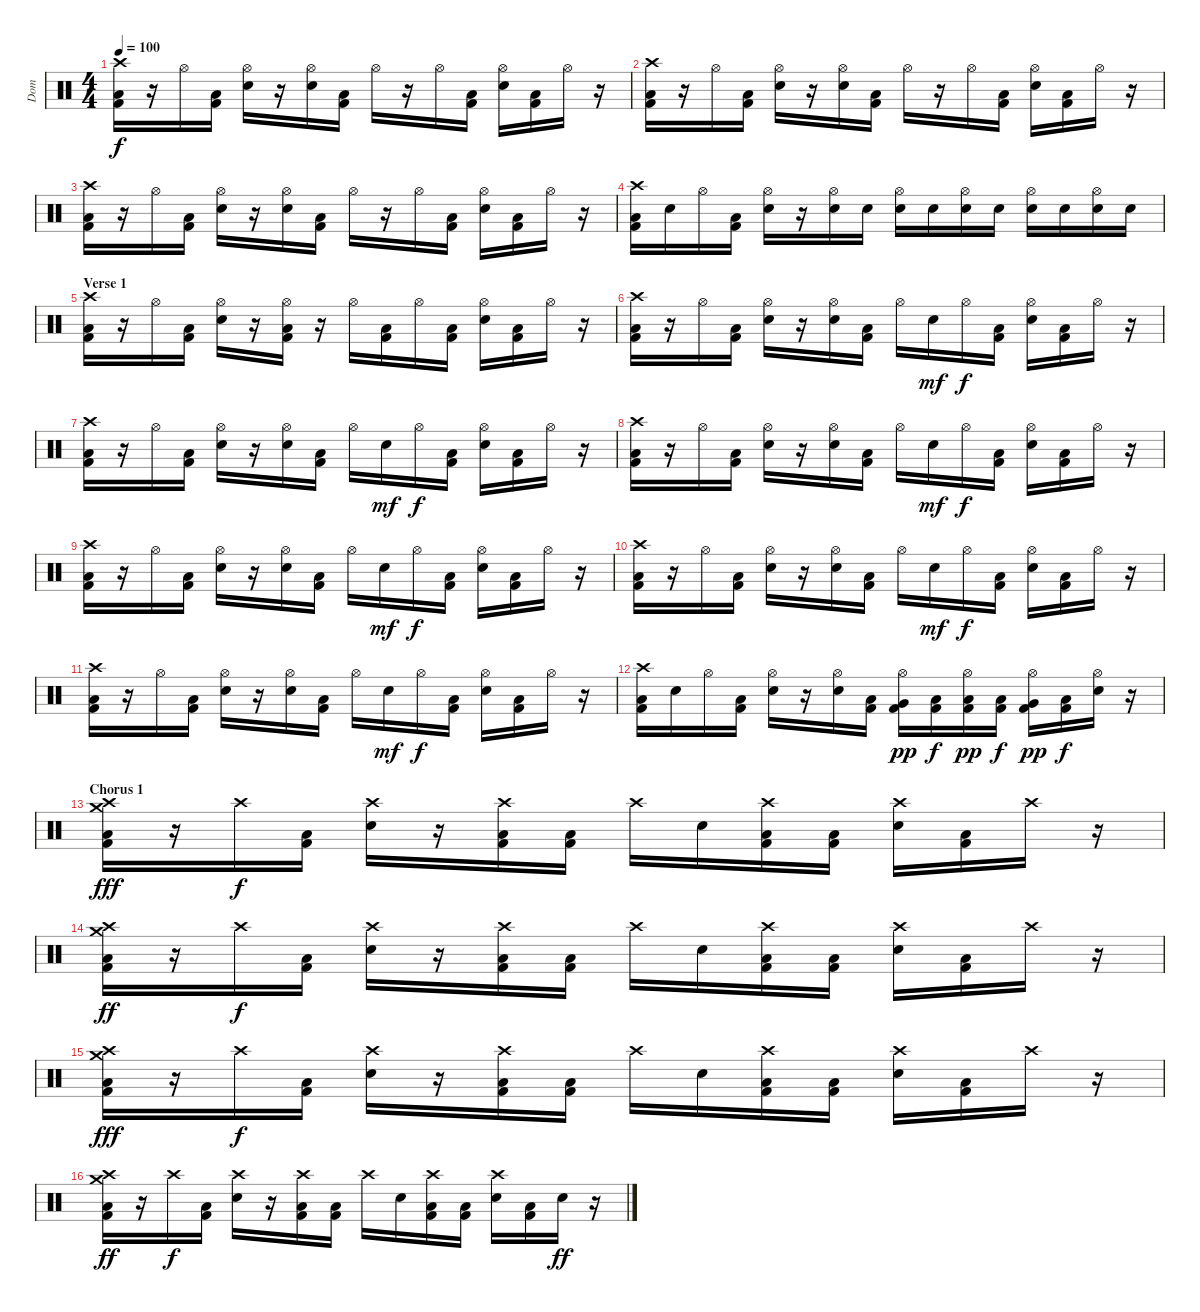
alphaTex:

\track ("Dom" "Dom") {instrument percussion}
\staff {score}
\articulation defaults
\ts (4 4)
\tempo 100
\clef neutral
\ks c
("Crash high (hit)" "Low Floor Tom (hit)" "Kick (hit) 2").16{dy f} r.16 "Hi-Hat (open)".16 ("Low Floor Tom (hit)" "Kick (hit) 2").16 ("Hi-Hat (open)" "Electric Snare (hit)").16 r.16 ("Hi-Hat (open)" "Electric Snare (hit)").16 ("Low Floor Tom (hit)" "Kick (hit) 2").16 "Hi-Hat (open)".16 r.16 "Hi-Hat (open)".16 ("Low Floor Tom (hit)" "Kick (hit) 2").16 ("Hi-Hat (open)" "Electric Snare (hit)").16 ("Low Floor Tom (hit)" "Kick (hit) 2").16 "Hi-Hat (open)".16 r.16 |
("Crash high (hit)" "Low Floor Tom (hit)" "Kick (hit) 2").16 r.16 "Hi-Hat (open)".16 ("Low Floor Tom (hit)" "Kick (hit) 2").16 ("Hi-Hat (open)" "Electric Snare (hit)").16 r.16 ("Hi-Hat (open)" "Electric Snare (hit)").16 ("Low Floor Tom (hit)" "Kick (hit) 2").16 "Hi-Hat (open)".16 r.16 "Hi-Hat (open)".16 ("Low Floor Tom (hit)" "Kick (hit) 2").16 ("Hi-Hat (open)" "Electric Snare (hit)").16 ("Low Floor Tom (hit)" "Kick (hit) 2").16 "Hi-Hat (open)".16 r.16 |
("Crash high (hit)" "Low Floor Tom (hit)" "Kick (hit) 2").16 r.16 "Hi-Hat (open)".16 ("Low Floor Tom (hit)" "Kick (hit) 2").16 ("Hi-Hat (open)" "Electric Snare (hit)").16 r.16 ("Hi-Hat (open)" "Electric Snare (hit)").16 ("Low Floor Tom (hit)" "Kick (hit) 2").16 "Hi-Hat (open)".16 r.16 "Hi-Hat (open)".16 ("Low Floor Tom (hit)" "Kick (hit) 2").16 ("Hi-Hat (open)" "Electric Snare (hit)").16 ("Low Floor Tom (hit)" "Kick (hit) 2").16 "Hi-Hat (open)".16 r.16 |
("Crash high (hit)" "Low Floor Tom (hit)" "Kick (hit) 2").16 "Electric Snare (hit)".16 "Hi-Hat (open)".16 ("Low Floor Tom (hit)" "Kick (hit) 2").16 ("Hi-Hat (open)" "Electric Snare (hit)").16 r.16 ("Hi-Hat (open)" "Electric Snare (hit)").16 "Electric Snare (hit)".16 ("Hi-Hat (open)" "Electric Snare (hit)").16 "Electric Snare (hit)".16 ("Hi-Hat (open)" "Electric Snare (hit)").16 "Electric Snare (hit)".16 ("Hi-Hat (open)" "Electric Snare (hit)").16 "Electric Snare (hit)".16 ("Hi-Hat (open)" "Electric Snare (hit)").16 "Electric Snare (hit)".16 |
\section ("" "Verse 1")
("Crash high (hit)" "Low Floor Tom (hit)" "Kick (hit) 2").16 r.16 "Hi-Hat (open)".16 ("Low Floor Tom (hit)" "Kick (hit) 2").16 ("Hi-Hat (open)" "Electric Snare (hit)").16 r.16 ("Hi-Hat (open)" "Low Floor Tom (hit)" "Kick (hit) 2").16 r.16 "Hi-Hat (open)".16 ("Low Floor Tom (hit)" "Kick (hit) 2").16 "Hi-Hat (open)".16 ("Low Floor Tom (hit)" "Kick (hit) 2").16 ("Hi-Hat (open)" "Electric Snare (hit)").16 ("Low Floor Tom (hit)" "Kick (hit) 2").16 "Hi-Hat (open)".16 r.16 |
("Crash high (hit)" "Low Floor Tom (hit)" "Kick (hit) 2").16 r.16 "Hi-Hat (open)".16 ("Low Floor Tom (hit)" "Kick (hit) 2").16 ("Hi-Hat (open)" "Electric Snare (hit)").16 r.16 ("Hi-Hat (open)" "Electric Snare (hit)").16 ("Low Floor Tom (hit)" "Kick (hit) 2").16 "Hi-Hat (open)".16 "Electric Snare (hit)".16{dy mf} "Hi-Hat (open)".16{dy f} ("Low Floor Tom (hit)" "Kick (hit) 2").16 ("Hi-Hat (open)" "Electric Snare (hit)").16 ("Low Floor Tom (hit)" "Kick (hit) 2").16 "Hi-Hat (open)".16 r.16 |
("Crash high (hit)" "Low Floor Tom (hit)" "Kick (hit) 2").16 r.16 "Hi-Hat (open)".16 ("Low Floor Tom (hit)" "Kick (hit) 2").16 ("Hi-Hat (open)" "Electric Snare (hit)").16 r.16 ("Hi-Hat (open)" "Electric Snare (hit)").16 ("Low Floor Tom (hit)" "Kick (hit) 2").16 "Hi-Hat (open)".16 "Electric Snare (hit)".16{dy mf} "Hi-Hat (open)".16{dy f} ("Low Floor Tom (hit)" "Kick (hit) 2").16 ("Hi-Hat (open)" "Electric Snare (hit)").16 ("Low Floor Tom (hit)" "Kick (hit) 2").16 "Hi-Hat (open)".16 r.16 |
("Crash high (hit)" "Low Floor Tom (hit)" "Kick (hit) 2").16 r.16 "Hi-Hat (open)".16 ("Low Floor Tom (hit)" "Kick (hit) 2").16 ("Hi-Hat (open)" "Electric Snare (hit)").16 r.16 ("Hi-Hat (open)" "Electric Snare (hit)").16 ("Low Floor Tom (hit)" "Kick (hit) 2").16 "Hi-Hat (open)".16 "Electric Snare (hit)".16{dy mf} "Hi-Hat (open)".16{dy f} ("Low Floor Tom (hit)" "Kick (hit) 2").16 ("Hi-Hat (open)" "Electric Snare (hit)").16 ("Low Floor Tom (hit)" "Kick (hit) 2").16 "Hi-Hat (open)".16 r.16 |
("Crash high (hit)" "Low Floor Tom (hit)" "Kick (hit) 2").16 r.16 "Hi-Hat (open)".16 ("Low Floor Tom (hit)" "Kick (hit) 2").16 ("Hi-Hat (open)" "Electric Snare (hit)").16 r.16 ("Hi-Hat (open)" "Electric Snare (hit)").16 ("Low Floor Tom (hit)" "Kick (hit) 2").16 "Hi-Hat (open)".16 "Electric Snare (hit)".16{dy mf} "Hi-Hat (open)".16{dy f} ("Low Floor Tom (hit)" "Kick (hit) 2").16 ("Hi-Hat (open)" "Electric Snare (hit)").16 ("Low Floor Tom (hit)" "Kick (hit) 2").16 "Hi-Hat (open)".16 r.16 |
("Crash high (hit)" "Low Floor Tom (hit)" "Kick (hit) 2").16 r.16 "Hi-Hat (open)".16 ("Low Floor Tom (hit)" "Kick (hit) 2").16 ("Hi-Hat (open)" "Electric Snare (hit)").16 r.16 ("Hi-Hat (open)" "Electric Snare (hit)").16 ("Low Floor Tom (hit)" "Kick (hit) 2").16 "Hi-Hat (open)".16 "Electric Snare (hit)".16{dy mf} "Hi-Hat (open)".16{dy f} ("Low Floor Tom (hit)" "Kick (hit) 2").16 ("Hi-Hat (open)" "Electric Snare (hit)").16 ("Low Floor Tom (hit)" "Kick (hit) 2").16 "Hi-Hat (open)".16 r.16 |
("Crash high (hit)" "Low Floor Tom (hit)" "Kick (hit) 2").16 r.16 "Hi-Hat (open)".16 ("Low Floor Tom (hit)" "Kick (hit) 2").16 ("Hi-Hat (open)" "Electric Snare (hit)").16 r.16 ("Hi-Hat (open)" "Electric Snare (hit)").16 ("Low Floor Tom (hit)" "Kick (hit) 2").16 "Hi-Hat (open)".16 "Electric Snare (hit)".16{dy mf} "Hi-Hat (open)".16{dy f} ("Low Floor Tom (hit)" "Kick (hit) 2").16 ("Hi-Hat (open)" "Electric Snare (hit)").16 ("Low Floor Tom (hit)" "Kick (hit) 2").16 "Hi-Hat (open)".16 r.16 |
("Crash high (hit)" "Low Floor Tom (hit)" "Kick (hit) 2").16 "Electric Snare (hit)".16 "Hi-Hat (open)".16 ("Low Floor Tom (hit)" "Kick (hit) 2").16 ("Hi-Hat (open)" "Electric Snare (hit)").16 r.16 ("Hi-Hat (open)" "Electric Snare (hit)").16 ("Low Floor Tom (hit)" "Kick (hit) 2").16 ("Hi-Hat (open)" "Very Low Tom (hit)" "Kick (hit) 2").16{dy pp} ("Low Floor Tom (hit)" "Kick (hit) 2").16{dy f} ("Hi-Hat (open)" "Low Floor Tom (hit)" "Kick (hit) 2").16{dy pp} ("Low Floor Tom (hit)" "Kick (hit) 2").16{dy f} ("Hi-Hat (open)" "Very Low Tom (hit)" "Kick (hit) 2").16{dy pp} ("Low Floor Tom (hit)" "Kick (hit) 2").16{dy f} ("Hi-Hat (open)" "Electric Snare (hit)").16 r.16 |
\section ("" "Chorus 1")
("Crash high (hit)" "Crash medium (hit)" "Low Floor Tom (hit)" "Kick (hit) 2").16{dy fff} r.16 "Crash high (hit)".16{dy f} ("Low Floor Tom (hit)" "Kick (hit) 2").16 ("Crash high (hit)" "Electric Snare (hit)").16 r.16 ("Crash high (hit)" "Low Floor Tom (hit)" "Kick (hit) 2").16 ("Low Floor Tom (hit)" "Kick (hit) 2").16 "Crash high (hit)".16 "Electric Snare (hit)".16 ("Crash high (hit)" "Low Floor Tom (hit)" "Kick (hit) 2").16 ("Low Floor Tom (hit)" "Kick (hit) 2").16 ("Crash high (hit)" "Electric Snare (hit)").16 ("Low Floor Tom (hit)" "Kick (hit) 2").16 "Crash high (hit)".16 r.16 |
("Crash high (hit)" "Crash medium (hit)" "Low Floor Tom (hit)" "Kick (hit) 2").16{dy ff} r.16 "Crash high (hit)".16{dy f} ("Low Floor Tom (hit)" "Kick (hit) 2").16 ("Crash high (hit)" "Electric Snare (hit)").16 r.16 ("Crash high (hit)" "Low Floor Tom (hit)" "Kick (hit) 2").16 ("Low Floor Tom (hit)" "Kick (hit) 2").16 "Crash high (hit)".16 "Electric Snare (hit)".16 ("Crash high (hit)" "Low Floor Tom (hit)" "Kick (hit) 2").16 ("Low Floor Tom (hit)" "Kick (hit) 2").16 ("Crash high (hit)" "Electric Snare (hit)").16 ("Low Floor Tom (hit)" "Kick (hit) 2").16 "Crash high (hit)".16 r.16 |
("Crash high (hit)" "Crash medium (hit)" "Low Floor Tom (hit)" "Kick (hit) 2").16{dy fff} r.16 "Crash high (hit)".16{dy f} ("Low Floor Tom (hit)" "Kick (hit) 2").16 ("Crash high (hit)" "Electric Snare (hit)").16 r.16 ("Crash high (hit)" "Low Floor Tom (hit)" "Kick (hit) 2").16 ("Low Floor Tom (hit)" "Kick (hit) 2").16 "Crash high (hit)".16 "Electric Snare (hit)".16 ("Crash high (hit)" "Low Floor Tom (hit)" "Kick (hit) 2").16 ("Low Floor Tom (hit)" "Kick (hit) 2").16 ("Crash high (hit)" "Electric Snare (hit)").16 ("Low Floor Tom (hit)" "Kick (hit) 2").16 "Crash high (hit)".16 r.16 |
("Crash high (hit)" "Crash medium (hit)" "Low Floor Tom (hit)" "Kick (hit) 2").16{dy ff} r.16 "Crash high (hit)".16{dy f} ("Low Floor Tom (hit)" "Kick (hit) 2").16 ("Crash high (hit)" "Electric Snare (hit)").16 r.16 ("Crash high (hit)" "Low Floor Tom (hit)" "Kick (hit) 2").16 ("Low Floor Tom (hit)" "Kick (hit) 2").16 "Crash high (hit)".16 "Electric Snare (hit)".16 ("Crash high (hit)" "Low Floor Tom (hit)" "Kick (hit) 2").16 ("Low Floor Tom (hit)" "Kick (hit) 2").16 ("Crash high (hit)" "Electric Snare (hit)").16 ("Low Floor Tom (hit)" "Kick (hit) 2").16 "Electric Snare (hit)".16{dy ff} r.16
